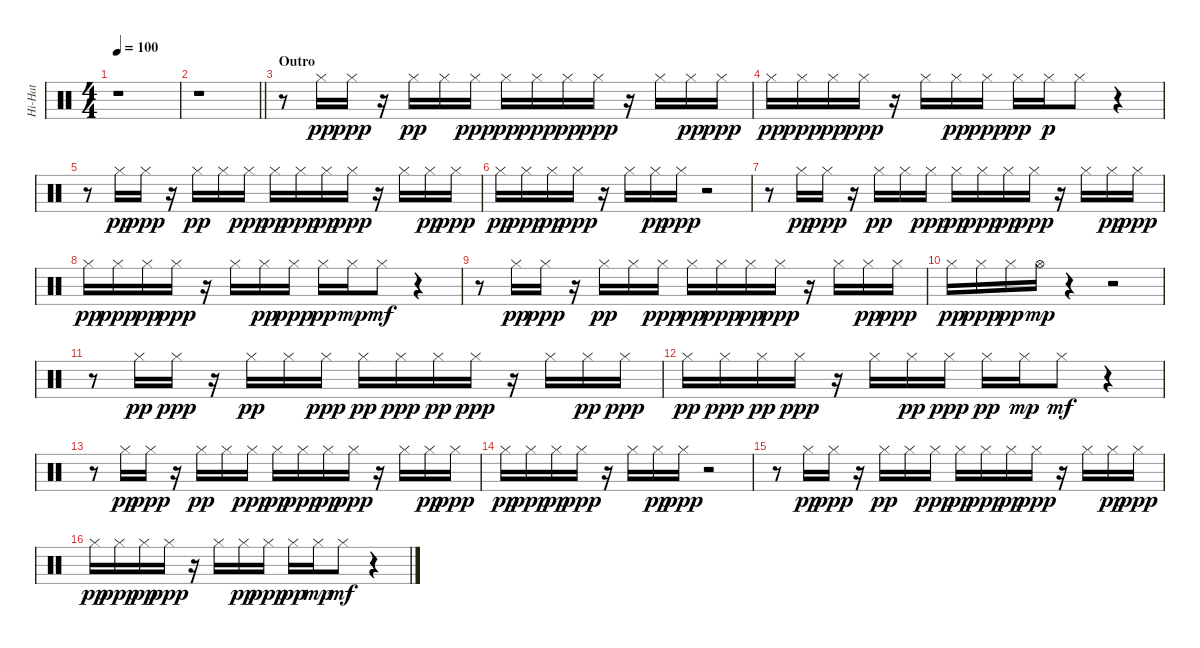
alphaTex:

\track ("Hi-Hat" "Hi-Hat") {instrument percussion}
\staff {score}
\articulation defaults
\ts (4 4)
\tempo 100
\clef neutral
\ks c
r.1{dy ppp} |
\barLineRight lightlight
r.1 |
\section ("" "Outro")
r.8 "Hi-Hat (closed)".16{dy pp} "Hi-Hat (closed)".16{dy ppp} r.16 "Hi-Hat (closed)".16{dy pp} "Hi-Hat (closed)".16 "Hi-Hat (closed)".16{dy ppp} "Hi-Hat (closed)".16{dy pp} "Hi-Hat (closed)".16{dy ppp} "Hi-Hat (closed)".16{dy pp} "Hi-Hat (closed)".16{dy ppp} r.16 "Hi-Hat (closed)".16 "Hi-Hat (closed)".16{dy pp} "Hi-Hat (closed)".16{dy ppp} |
"Hi-Hat (closed)".16{dy pp} "Hi-Hat (closed)".16{dy ppp} "Hi-Hat (closed)".16{dy pp} "Hi-Hat (closed)".16{dy ppp} r.16 "Hi-Hat (closed)".16 "Hi-Hat (closed)".16{dy pp} "Hi-Hat (closed)".16{dy ppp} "Hi-Hat (closed)".16{dy pp} "Hi-Hat (closed)".16{dy p} "Hi-Hat (closed)".8 r.4 |
r.8 "Hi-Hat (closed)".16{dy pp} "Hi-Hat (closed)".16{dy ppp} r.16 "Hi-Hat (closed)".16{dy pp} "Hi-Hat (closed)".16 "Hi-Hat (closed)".16{dy ppp} "Hi-Hat (closed)".16{dy pp} "Hi-Hat (closed)".16{dy ppp} "Hi-Hat (closed)".16{dy pp} "Hi-Hat (closed)".16{dy ppp} r.16 "Hi-Hat (closed)".16 "Hi-Hat (closed)".16{dy pp} "Hi-Hat (closed)".16{dy ppp} |
"Hi-Hat (closed)".16{dy pp} "Hi-Hat (closed)".16{dy ppp} "Hi-Hat (closed)".16{dy pp} "Hi-Hat (closed)".16{dy ppp} r.16 "Hi-Hat (closed)".16 "Hi-Hat (closed)".16{dy pp} "Hi-Hat (closed)".16{dy ppp} r.2 |
r.8 "Hi-Hat (closed)".16{dy pp} "Hi-Hat (closed)".16{dy ppp} r.16 "Hi-Hat (closed)".16{dy pp} "Hi-Hat (closed)".16 "Hi-Hat (closed)".16{dy ppp} "Hi-Hat (closed)".16{dy pp} "Hi-Hat (closed)".16{dy ppp} "Hi-Hat (closed)".16{dy pp} "Hi-Hat (closed)".16{dy ppp} r.16 "Hi-Hat (closed)".16 "Hi-Hat (closed)".16{dy pp} "Hi-Hat (closed)".16{dy ppp} |
"Hi-Hat (closed)".16{dy pp} "Hi-Hat (closed)".16{dy ppp} "Hi-Hat (closed)".16{dy pp} "Hi-Hat (closed)".16{dy ppp} r.16 "Hi-Hat (closed)".16 "Hi-Hat (closed)".16{dy pp} "Hi-Hat (closed)".16{dy ppp} "Hi-Hat (closed)".16{dy pp} "Hi-Hat (closed)".16{dy mp} "Hi-Hat (closed)".8{dy mf} r.4 |
r.8 "Hi-Hat (closed)".16{dy pp} "Hi-Hat (closed)".16{dy ppp} r.16 "Hi-Hat (closed)".16{dy pp} "Hi-Hat (closed)".16 "Hi-Hat (closed)".16{dy ppp} "Hi-Hat (closed)".16{dy pp} "Hi-Hat (closed)".16{dy ppp} "Hi-Hat (closed)".16{dy pp} "Hi-Hat (closed)".16{dy ppp} r.16 "Hi-Hat (closed)".16 "Hi-Hat (closed)".16{dy pp} "Hi-Hat (closed)".16{dy ppp} |
"Hi-Hat (closed)".16{dy pp} "Hi-Hat (closed)".16{dy ppp} "Hi-Hat (closed)".16{dy pp} "Hi-Hat (open)".16{dy mp} r.4 r.2 |
r.8 "Hi-Hat (closed)".16{dy pp} "Hi-Hat (closed)".16{dy ppp} r.16 "Hi-Hat (closed)".16{dy pp} "Hi-Hat (closed)".16 "Hi-Hat (closed)".16{dy ppp} "Hi-Hat (closed)".16{dy pp} "Hi-Hat (closed)".16{dy ppp} "Hi-Hat (closed)".16{dy pp} "Hi-Hat (closed)".16{dy ppp} r.16 "Hi-Hat (closed)".16 "Hi-Hat (closed)".16{dy pp} "Hi-Hat (closed)".16{dy ppp} |
"Hi-Hat (closed)".16{dy pp} "Hi-Hat (closed)".16{dy ppp} "Hi-Hat (closed)".16{dy pp} "Hi-Hat (closed)".16{dy ppp} r.16 "Hi-Hat (closed)".16 "Hi-Hat (closed)".16{dy pp} "Hi-Hat (closed)".16{dy ppp} "Hi-Hat (closed)".16{dy pp} "Hi-Hat (closed)".16{dy mp} "Hi-Hat (closed)".8{dy mf} r.4 |
r.8 "Hi-Hat (closed)".16{dy pp} "Hi-Hat (closed)".16{dy ppp} r.16 "Hi-Hat (closed)".16{dy pp} "Hi-Hat (closed)".16 "Hi-Hat (closed)".16{dy ppp} "Hi-Hat (closed)".16{dy pp} "Hi-Hat (closed)".16{dy ppp} "Hi-Hat (closed)".16{dy pp} "Hi-Hat (closed)".16{dy ppp} r.16 "Hi-Hat (closed)".16 "Hi-Hat (closed)".16{dy pp} "Hi-Hat (closed)".16{dy ppp} |
"Hi-Hat (closed)".16{dy pp} "Hi-Hat (closed)".16{dy ppp} "Hi-Hat (closed)".16{dy pp} "Hi-Hat (closed)".16{dy ppp} r.16 "Hi-Hat (closed)".16 "Hi-Hat (closed)".16{dy pp} "Hi-Hat (closed)".16{dy ppp} r.2 |
r.8 "Hi-Hat (closed)".16{dy pp} "Hi-Hat (closed)".16{dy ppp} r.16 "Hi-Hat (closed)".16{dy pp} "Hi-Hat (closed)".16 "Hi-Hat (closed)".16{dy ppp} "Hi-Hat (closed)".16{dy pp} "Hi-Hat (closed)".16{dy ppp} "Hi-Hat (closed)".16{dy pp} "Hi-Hat (closed)".16{dy ppp} r.16 "Hi-Hat (closed)".16 "Hi-Hat (closed)".16{dy pp} "Hi-Hat (closed)".16{dy ppp} |
"Hi-Hat (closed)".16{dy pp} "Hi-Hat (closed)".16{dy ppp} "Hi-Hat (closed)".16{dy pp} "Hi-Hat (closed)".16{dy ppp} r.16 "Hi-Hat (closed)".16 "Hi-Hat (closed)".16{dy pp} "Hi-Hat (closed)".16{dy ppp} "Hi-Hat (closed)".16{dy pp} "Hi-Hat (closed)".16{dy mp} "Hi-Hat (closed)".8{dy mf} r.4
